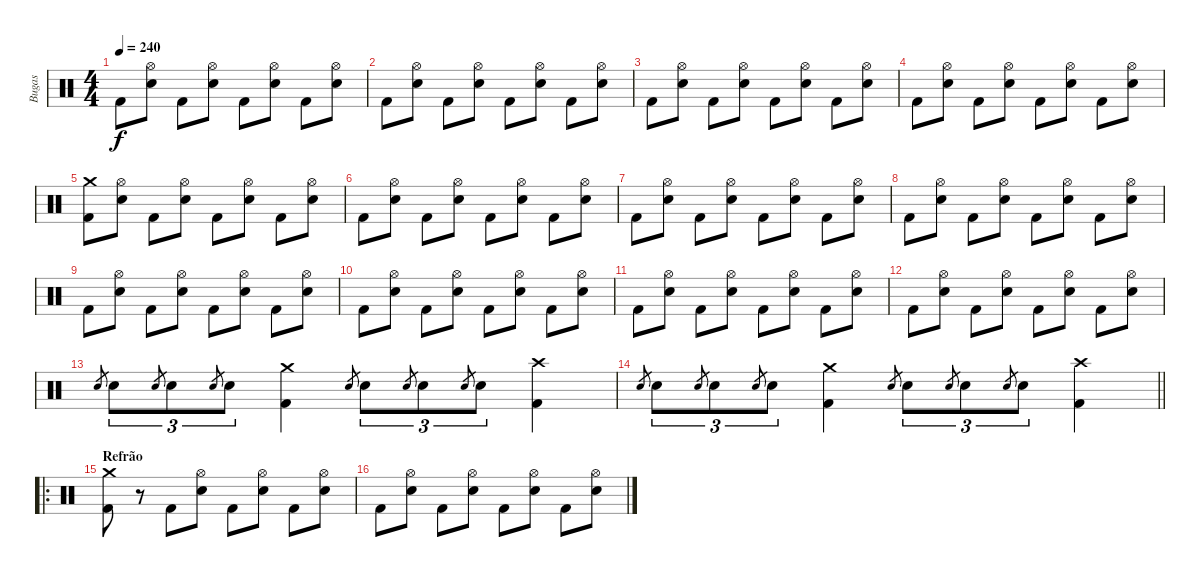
\track ("Bugas" "Bugas") {instrument percussion}
\staff {score}
\articulation defaults
\ts (4 4)
\tempo 240
\clef neutral
\ks c "Kick (hit) 2".8{dy f}
("Hi-Hat (open)" "Electric Snare (hit)").8 "Kick (hit) 2".8 ("Hi-Hat (open)" "Electric Snare (hit)").8 "Kick (hit) 2".8 ("Hi-Hat (open)" "Electric Snare (hit)").8 "Kick (hit) 2".8 ("Hi-Hat (open)" "Electric Snare (hit)").8 |
"Kick (hit) 2".8 ("Hi-Hat (open)" "Electric Snare (hit)").8 "Kick (hit) 2".8 ("Hi-Hat (open)" "Electric Snare (hit)").8 "Kick (hit) 2".8 ("Hi-Hat (open)" "Electric Snare (hit)").8 "Kick (hit) 2".8 ("Hi-Hat (open)" "Electric Snare (hit)").8 |
"Kick (hit) 2".8 ("Hi-Hat (open)" "Electric Snare (hit)").8 "Kick (hit) 2".8 ("Hi-Hat (open)" "Electric Snare (hit)").8 "Kick (hit) 2".8 ("Hi-Hat (open)" "Electric Snare (hit)").8 "Kick (hit) 2".8 ("Hi-Hat (open)" "Electric Snare (hit)").8 |
"Kick (hit) 2".8 ("Hi-Hat (open)" "Electric Snare (hit)").8 "Kick (hit) 2".8 ("Hi-Hat (open)" "Electric Snare (hit)").8 "Kick (hit) 2".8 ("Hi-Hat (open)" "Electric Snare (hit)").8 "Kick (hit) 2".8 ("Hi-Hat (open)" "Electric Snare (hit)").8 |
("Crash medium (hit)" "Kick (hit) 2").8 ("Hi-Hat (open)" "Electric Snare (hit)").8 "Kick (hit) 2".8 ("Hi-Hat (open)" "Electric Snare (hit)").8 "Kick (hit) 2".8 ("Hi-Hat (open)" "Electric Snare (hit)").8 "Kick (hit) 2".8 ("Hi-Hat (open)" "Electric Snare (hit)").8 |
"Kick (hit) 2".8 ("Hi-Hat (open)" "Electric Snare (hit)").8 "Kick (hit) 2".8 ("Hi-Hat (open)" "Electric Snare (hit)").8 "Kick (hit) 2".8 ("Hi-Hat (open)" "Electric Snare (hit)").8 "Kick (hit) 2".8 ("Hi-Hat (open)" "Electric Snare (hit)").8 |
"Kick (hit) 2".8 ("Hi-Hat (open)" "Electric Snare (hit)").8 "Kick (hit) 2".8 ("Hi-Hat (open)" "Electric Snare (hit)").8 "Kick (hit) 2".8 ("Hi-Hat (open)" "Electric Snare (hit)").8 "Kick (hit) 2".8 ("Hi-Hat (open)" "Electric Snare (hit)").8 |
"Kick (hit) 2".8 ("Hi-Hat (open)" "Electric Snare (hit)").8 "Kick (hit) 2".8 ("Hi-Hat (open)" "Electric Snare (hit)").8 "Kick (hit) 2".8 ("Hi-Hat (open)" "Electric Snare (hit)").8 "Kick (hit) 2".8 ("Hi-Hat (open)" "Electric Snare (hit)").8 |
"Kick (hit) 2".8 ("Hi-Hat (open)" "Electric Snare (hit)").8 "Kick (hit) 2".8 ("Hi-Hat (open)" "Electric Snare (hit)").8 "Kick (hit) 2".8 ("Hi-Hat (open)" "Electric Snare (hit)").8 "Kick (hit) 2".8 ("Hi-Hat (open)" "Electric Snare (hit)").8 |
"Kick (hit) 2".8 ("Hi-Hat (open)" "Electric Snare (hit)").8 "Kick (hit) 2".8 ("Hi-Hat (open)" "Electric Snare (hit)").8 "Kick (hit) 2".8 ("Hi-Hat (open)" "Electric Snare (hit)").8 "Kick (hit) 2".8 ("Hi-Hat (open)" "Electric Snare (hit)").8 |
"Kick (hit) 2".8 ("Hi-Hat (open)" "Electric Snare (hit)").8 "Kick (hit) 2".8 ("Hi-Hat (open)" "Electric Snare (hit)").8 "Kick (hit) 2".8 ("Hi-Hat (open)" "Electric Snare (hit)").8 "Kick (hit) 2".8 ("Hi-Hat (open)" "Electric Snare (hit)").8 |
"Kick (hit) 2".8 ("Hi-Hat (open)" "Electric Snare (hit)").8 "Kick (hit) 2".8 ("Hi-Hat (open)" "Electric Snare (hit)").8 "Kick (hit) 2".8 ("Hi-Hat (open)" "Electric Snare (hit)").8 "Kick (hit) 2".8 ("Hi-Hat (open)" "Electric Snare (hit)").8 |
"Electric Snare (hit)".8{gr} "Electric Snare (hit)".8{tu (3 2)} "Electric Snare (hit)".8{gr} "Electric Snare (hit)".8{tu (3 2)} "Electric Snare (hit)".8{gr} "Electric Snare (hit)".8{tu (3 2)} ("Crash medium (hit)" "Kick (hit) 2").4 "Electric Snare (hit)".8{gr} "Electric Snare (hit)".8{tu (3 2)} "Electric Snare (hit)".8{gr} "Electric Snare (hit)".8{tu (3 2)} "Electric Snare (hit)".8{gr} "Electric Snare (hit)".8{tu (3 2)} ("Crash high (hit)" "Kick (hit) 2").4 |
\barLineRight lightlight "Electric Snare (hit)".8{gr} "Electric Snare (hit)".8{tu (3 2)} "Electric Snare (hit)".8{gr} "Electric Snare (hit)".8{tu (3 2)} "Electric Snare (hit)".8{gr} "Electric Snare (hit)".8{tu (3 2)}
("Crash medium (hit)" "Kick (hit) 2").4 "Electric Snare (hit)".8{gr} "Electric Snare (hit)".8{tu (3 2)} "Electric Snare (hit)".8{gr} "Electric Snare (hit)".8{tu (3 2)} "Electric Snare (hit)".8{gr} "Electric Snare (hit)".8{tu (3 2)} ("Crash high (hit)" "Kick (hit) 2").4 |
\ro
\section ("" "Refrão")
("Crash medium (hit)" "Kick (hit) 2").8 r.8 "Kick (hit) 2".8 ("Hi-Hat (open)" "Electric Snare (hit)").8 "Kick (hit) 2".8 ("Hi-Hat (open)" "Electric Snare (hit)").8 "Kick (hit) 2".8 ("Hi-Hat (open)" "Electric Snare (hit)").8 |
"Kick (hit) 2".8 ("Hi-Hat (open)" "Electric Snare (hit)").8 "Kick (hit) 2".8 ("Hi-Hat (open)" "Electric Snare (hit)").8 "Kick (hit) 2".8 ("Hi-Hat (open)" "Electric Snare (hit)").8 "Kick (hit) 2".8 ("Hi-Hat (open)" "Electric Snare (hit)").8
